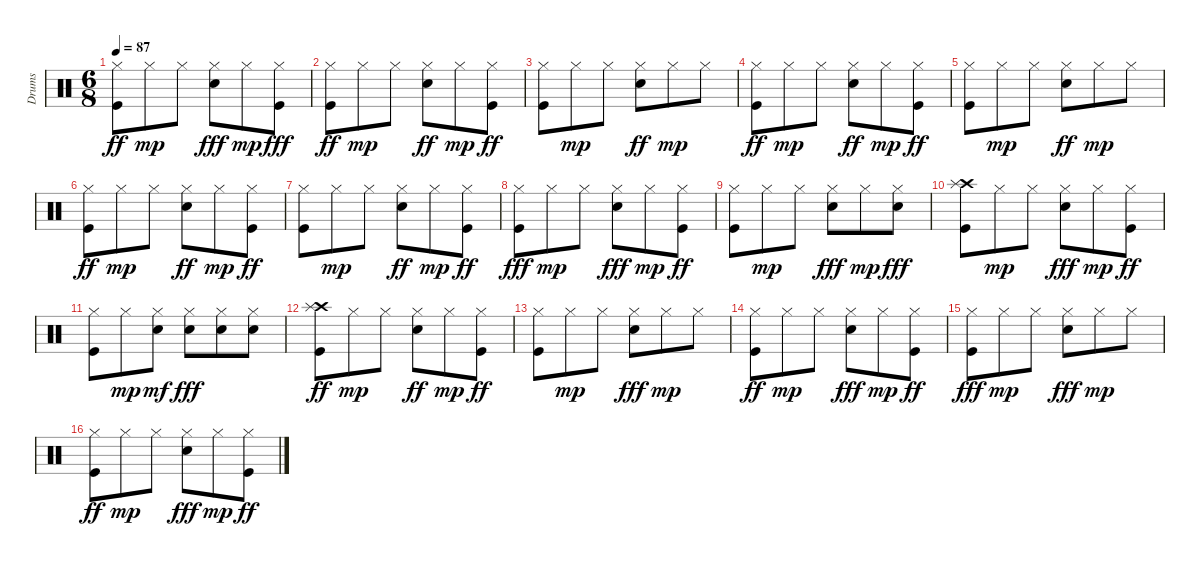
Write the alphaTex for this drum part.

\track ("Drums" "Drums") {instrument percussion}
\staff {score}
\articulation defaults
\ts (6 8)
\tempo 87
\clef neutral
\ks c
("Hi-Hat (closed)" "Kick (hit)").8{dy ff} "Hi-Hat (closed)".8{dy mp} "Hi-Hat (closed)".8 ("Hi-Hat (closed)" "Snare (hit) 2").8{dy fff} "Hi-Hat (closed)".8{dy mp} ("Hi-Hat (closed)" "Kick (hit)").8{dy fff} |
("Hi-Hat (closed)" "Kick (hit)").8{dy ff} "Hi-Hat (closed)".8{dy mp} "Hi-Hat (closed)".8 ("Hi-Hat (closed)" "Snare (hit) 2").8{dy ff} "Hi-Hat (closed)".8{dy mp} ("Hi-Hat (closed)" "Kick (hit)").8{dy ff} |
("Hi-Hat (closed)" "Kick (hit)").8 "Hi-Hat (closed)".8{dy mp} "Hi-Hat (closed)".8 ("Hi-Hat (closed)" "Snare (hit) 2").8{dy ff} "Hi-Hat (closed)".8{dy mp} "Hi-Hat (closed)".8 |
("Hi-Hat (closed)" "Kick (hit)").8{dy ff} "Hi-Hat (closed)".8{dy mp} "Hi-Hat (closed)".8 ("Hi-Hat (closed)" "Snare (hit) 2").8{dy ff} "Hi-Hat (closed)".8{dy mp} ("Hi-Hat (closed)" "Kick (hit)").8{dy ff} |
("Hi-Hat (closed)" "Kick (hit)").8 "Hi-Hat (closed)".8{dy mp} "Hi-Hat (closed)".8 ("Hi-Hat (closed)" "Snare (hit) 2").8{dy ff} "Hi-Hat (closed)".8{dy mp} "Hi-Hat (closed)".8 |
("Hi-Hat (closed)" "Kick (hit)").8{dy ff} "Hi-Hat (closed)".8{dy mp} "Hi-Hat (closed)".8 ("Hi-Hat (closed)" "Snare (hit) 2").8{dy ff} "Hi-Hat (closed)".8{dy mp} ("Hi-Hat (closed)" "Kick (hit)").8{dy ff} |
("Hi-Hat (closed)" "Kick (hit)").8 "Hi-Hat (closed)".8{dy mp} "Hi-Hat (closed)".8 ("Hi-Hat (closed)" "Snare (hit) 2").8{dy ff} "Hi-Hat (closed)".8{dy mp} ("Hi-Hat (closed)" "Kick (hit)").8{dy ff} |
("Hi-Hat (closed)" "Kick (hit)").8{dy fff} "Hi-Hat (closed)".8{dy mp} "Hi-Hat (closed)".8 ("Hi-Hat (closed)" "Snare (hit) 2").8{dy fff} "Hi-Hat (closed)".8{dy mp} ("Hi-Hat (closed)" "Kick (hit)").8{dy ff} |
("Hi-Hat (closed)" "Kick (hit)").8 "Hi-Hat (closed)".8{dy mp} "Hi-Hat (closed)".8 ("Hi-Hat (closed)" "Snare (hit) 2").8{dy fff} "Hi-Hat (closed)".8{dy mp} ("Hi-Hat (closed)" "Snare (hit) 2").8{dy fff} |
("Crash high (hit)" "Splash (hit)" "Kick (hit)").8 "Hi-Hat (closed)".8{dy mp} "Hi-Hat (closed)".8 ("Hi-Hat (closed)" "Snare (hit) 2").8{dy fff} "Hi-Hat (closed)".8{dy mp} ("Hi-Hat (closed)" "Kick (hit)").8{dy ff} |
("Hi-Hat (closed)" "Kick (hit)").8 "Hi-Hat (closed)".8{dy mp} ("Hi-Hat (closed)" "Snare (hit) 2").8{dy mf} ("Hi-Hat (closed)" "Snare (hit) 2").8{dy fff} ("Hi-Hat (closed)" "Snare (hit) 2").8 ("Hi-Hat (closed)" "Snare (hit) 2").8 |
("Crash high (hit)" "Splash (hit)" "Kick (hit)").8{dy ff} "Hi-Hat (closed)".8{dy mp} "Hi-Hat (closed)".8 ("Hi-Hat (closed)" "Snare (hit) 2").8{dy ff} "Hi-Hat (closed)".8{dy mp} ("Hi-Hat (closed)" "Kick (hit)").8{dy ff} |
("Hi-Hat (closed)" "Kick (hit)").8 "Hi-Hat (closed)".8{dy mp} "Hi-Hat (closed)".8 ("Hi-Hat (closed)" "Snare (hit) 2").8{dy fff} "Hi-Hat (closed)".8{dy mp} "Hi-Hat (closed)".8 |
("Hi-Hat (closed)" "Kick (hit)").8{dy ff} "Hi-Hat (closed)".8{dy mp} "Hi-Hat (closed)".8 ("Hi-Hat (closed)" "Snare (hit) 2").8{dy fff} "Hi-Hat (closed)".8{dy mp} ("Hi-Hat (closed)" "Kick (hit)").8{dy ff} |
("Hi-Hat (closed)" "Kick (hit)").8{dy fff} "Hi-Hat (closed)".8{dy mp} "Hi-Hat (closed)".8 ("Hi-Hat (closed)" "Snare (hit) 2").8{dy fff} "Hi-Hat (closed)".8{dy mp} "Hi-Hat (closed)".8 |
("Hi-Hat (closed)" "Kick (hit)").8{dy ff} "Hi-Hat (closed)".8{dy mp} "Hi-Hat (closed)".8 ("Hi-Hat (closed)" "Snare (hit) 2").8{dy fff} "Hi-Hat (closed)".8{dy mp} ("Hi-Hat (closed)" "Kick (hit)").8{dy ff}
